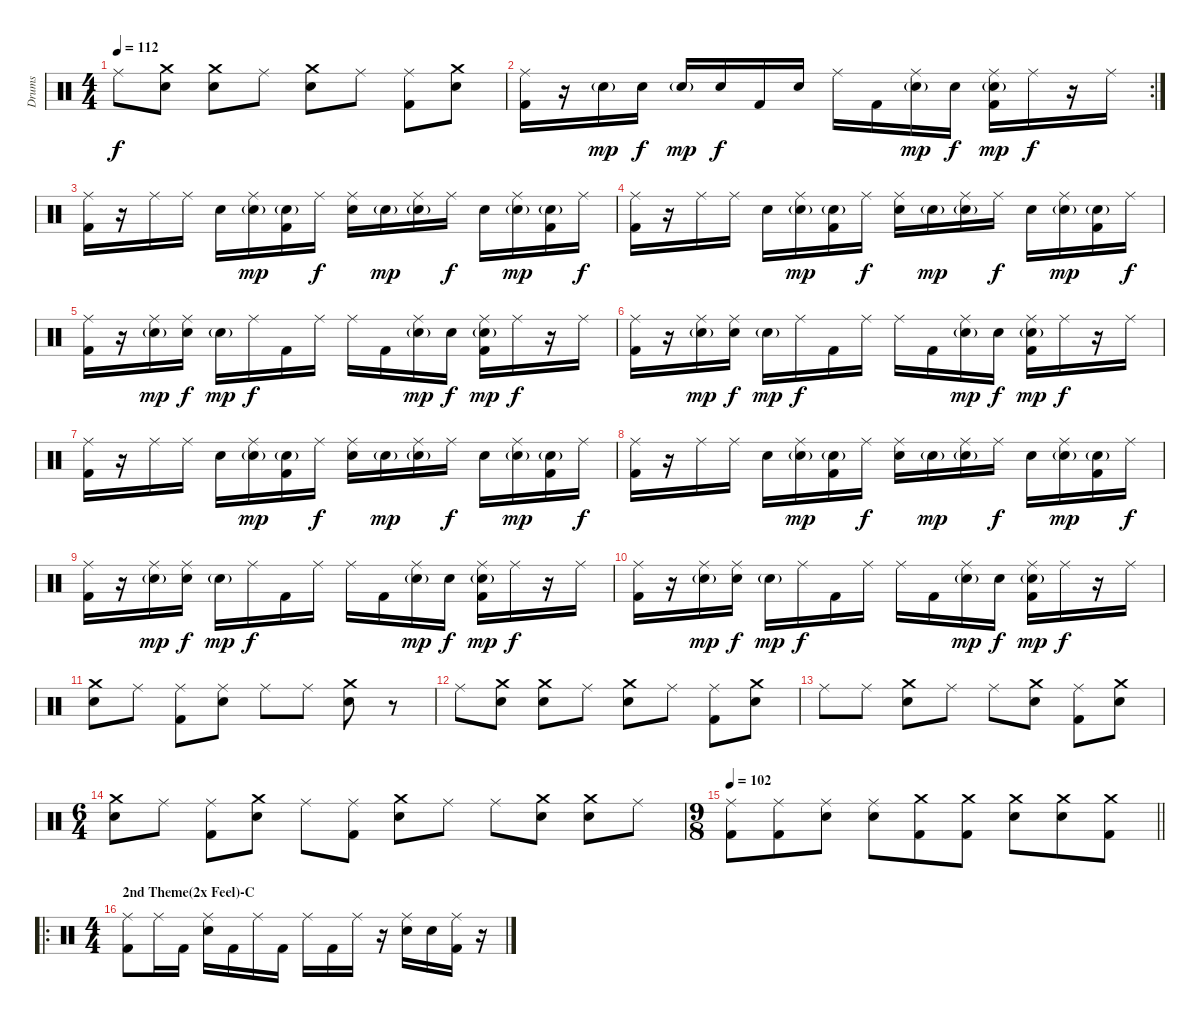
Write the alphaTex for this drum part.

\track ("Drums" "Drums") {instrument percussion}
\staff {score}
\articulation defaults
\ts (4 4)
\tempo 112
\clef neutral
\ks c "Ride (middle)".8{dy f}
("Crash medium (hit)" "Electric Snare (hit)").8 ("Crash medium (hit)" "Electric Snare (hit)").8 "Ride (middle)".8 ("Crash medium (hit)" "Electric Snare (hit)").8 "Ride (middle)".8 ("Ride (middle)" "Kick (hit) 2").8 ("Crash medium (hit)" "Electric Snare (hit)").8 |
\rc 2
("Ride (middle)" "Kick (hit) 2").16 r.16 "Electric Snare (hit)"{g}.16{dy mp} "Electric Snare (hit)".16{dy f} "Electric Snare (hit)"{g}.16{dy mp} "Electric Snare (hit)".16{dy f} "Kick (hit) 2".16 "Electric Snare (hit)".16 "Ride (middle)".16 "Kick (hit) 2".16 ("Ride (middle)" "Electric Snare (hit)"{g}).16{dy mp} "Electric Snare (hit)".16{dy f} ("Ride (middle)" "Electric Snare (hit)"{g} "Kick (hit) 2").16{dy mp} "Ride (middle)".16{dy f} r.16 "Ride (middle)".16 |
("Ride (middle)" "Kick (hit) 2").16 r.16 "Ride (middle)".16 "Ride (middle)".16 "Electric Snare (hit)".16 ("Ride (middle)" "Electric Snare (hit)"{g}).16{dy mp} ("Electric Snare (hit)"{g} "Kick (hit) 2").16 "Ride (middle)".16{dy f} ("Ride (middle)" "Electric Snare (hit)").16 "Electric Snare (hit)"{g}.16{dy mp} ("Ride (middle)" "Electric Snare (hit)"{g}).16 "Ride (middle)".16{dy f} "Electric Snare (hit)".16 ("Ride (middle)" "Electric Snare (hit)"{g}).16{dy mp} ("Electric Snare (hit)"{g} "Kick (hit) 2").16 "Ride (middle)".16{dy f} |
("Ride (middle)" "Kick (hit) 2").16 r.16 "Ride (middle)".16 "Ride (middle)".16 "Electric Snare (hit)".16 ("Ride (middle)" "Electric Snare (hit)"{g}).16{dy mp} ("Electric Snare (hit)"{g} "Kick (hit) 2").16 "Ride (middle)".16{dy f} ("Ride (middle)" "Electric Snare (hit)").16 "Electric Snare (hit)"{g}.16{dy mp} ("Ride (middle)" "Electric Snare (hit)"{g}).16 "Ride (middle)".16{dy f} "Electric Snare (hit)".16 ("Ride (middle)" "Electric Snare (hit)"{g}).16{dy mp} ("Electric Snare (hit)"{g} "Kick (hit) 2").16 "Ride (middle)".16{dy f} |
("Ride (middle)" "Kick (hit) 2").16 r.16 ("Ride (middle)" "Electric Snare (hit)"{g}).16{dy mp} ("Ride (middle)" "Electric Snare (hit)").16{dy f} "Electric Snare (hit)"{g}.16{dy mp} "Ride (middle)".16{dy f} "Kick (hit) 2".16 "Ride (middle)".16 "Ride (middle)".16 "Kick (hit) 2".16 ("Ride (middle)" "Electric Snare (hit)"{g}).16{dy mp} "Electric Snare (hit)".16{dy f} ("Ride (middle)" "Electric Snare (hit)"{g} "Kick (hit) 2").16{dy mp} "Ride (middle)".16{dy f} r.16 "Ride (middle)".16 |
("Ride (middle)" "Kick (hit) 2").16 r.16 ("Ride (middle)" "Electric Snare (hit)"{g}).16{dy mp} ("Ride (middle)" "Electric Snare (hit)").16{dy f} "Electric Snare (hit)"{g}.16{dy mp} "Ride (middle)".16{dy f} "Kick (hit) 2".16 "Ride (middle)".16 "Ride (middle)".16 "Kick (hit) 2".16 ("Ride (middle)" "Electric Snare (hit)"{g}).16{dy mp} "Electric Snare (hit)".16{dy f} ("Ride (middle)" "Electric Snare (hit)"{g} "Kick (hit) 2").16{dy mp} "Ride (middle)".16{dy f} r.16 "Ride (middle)".16 |
("Ride (middle)" "Kick (hit) 2").16 r.16 "Ride (middle)".16 "Ride (middle)".16 "Electric Snare (hit)".16 ("Ride (middle)" "Electric Snare (hit)"{g}).16{dy mp} ("Electric Snare (hit)"{g} "Kick (hit) 2").16 "Ride (middle)".16{dy f} ("Ride (middle)" "Electric Snare (hit)").16 "Electric Snare (hit)"{g}.16{dy mp} ("Ride (middle)" "Electric Snare (hit)"{g}).16 "Ride (middle)".16{dy f} "Electric Snare (hit)".16 ("Ride (middle)" "Electric Snare (hit)"{g}).16{dy mp} ("Electric Snare (hit)"{g} "Kick (hit) 2").16 "Ride (middle)".16{dy f} |
("Ride (middle)" "Kick (hit) 2").16 r.16 "Ride (middle)".16 "Ride (middle)".16 "Electric Snare (hit)".16 ("Ride (middle)" "Electric Snare (hit)"{g}).16{dy mp} ("Electric Snare (hit)"{g} "Kick (hit) 2").16 "Ride (middle)".16{dy f} ("Ride (middle)" "Electric Snare (hit)").16 "Electric Snare (hit)"{g}.16{dy mp} ("Ride (middle)" "Electric Snare (hit)"{g}).16 "Ride (middle)".16{dy f} "Electric Snare (hit)".16 ("Ride (middle)" "Electric Snare (hit)"{g}).16{dy mp} ("Electric Snare (hit)"{g} "Kick (hit) 2").16 "Ride (middle)".16{dy f} |
("Ride (middle)" "Kick (hit) 2").16 r.16 ("Ride (middle)" "Electric Snare (hit)"{g}).16{dy mp} ("Ride (middle)" "Electric Snare (hit)").16{dy f} "Electric Snare (hit)"{g}.16{dy mp} "Ride (middle)".16{dy f} "Kick (hit) 2".16 "Ride (middle)".16 "Ride (middle)".16 "Kick (hit) 2".16 ("Ride (middle)" "Electric Snare (hit)"{g}).16{dy mp} "Electric Snare (hit)".16{dy f} ("Ride (middle)" "Electric Snare (hit)"{g} "Kick (hit) 2").16{dy mp} "Ride (middle)".16{dy f} r.16 "Ride (middle)".16 |
("Ride (middle)" "Kick (hit) 2").16 r.16 ("Ride (middle)" "Electric Snare (hit)"{g}).16{dy mp} ("Ride (middle)" "Electric Snare (hit)").16{dy f} "Electric Snare (hit)"{g}.16{dy mp} "Ride (middle)".16{dy f} "Kick (hit) 2".16 "Ride (middle)".16 "Ride (middle)".16 "Kick (hit) 2".16 ("Ride (middle)" "Electric Snare (hit)"{g}).16{dy mp} "Electric Snare (hit)".16{dy f} ("Ride (middle)" "Electric Snare (hit)"{g} "Kick (hit) 2").16{dy mp} "Ride (middle)".16{dy f} r.16 "Ride (middle)".16 |
("Crash medium (hit)" "Electric Snare (hit)").8 "Ride (middle)".8 ("Ride (middle)" "Kick (hit) 2").8 ("Ride (middle)" "Electric Snare (hit)").8 "Ride (middle)".8 "Ride (middle)".8 ("Crash medium (hit)" "Electric Snare (hit)").8 r.8 |
"Ride (middle)".8 ("Crash medium (hit)" "Electric Snare (hit)").8 ("Crash medium (hit)" "Electric Snare (hit)").8 "Ride (middle)".8 ("Crash medium (hit)" "Electric Snare (hit)").8 "Ride (middle)".8 ("Ride (middle)" "Kick (hit) 2").8 ("Crash medium (hit)" "Electric Snare (hit)").8 |
"Ride (middle)".8 "Ride (middle)".8 ("Crash medium (hit)" "Electric Snare (hit)").8 "Ride (middle)".8 "Ride (middle)".8 ("Crash medium (hit)" "Electric Snare (hit)").8 ("Ride (middle)" "Kick (hit) 2").8 ("Crash medium (hit)" "Electric Snare (hit)").8 |
\ts (6 4)
("Crash medium (hit)" "Electric Snare (hit)").8 "Ride (middle)".8 ("Ride (middle)" "Kick (hit) 2").8 ("Crash medium (hit)" "Electric Snare (hit)").8 "Ride (middle)".8 ("Ride (middle)" "Kick (hit) 2").8 ("Crash medium (hit)" "Electric Snare (hit)").8 "Ride (middle)".8 "Ride (middle)".8 ("Crash medium (hit)" "Electric Snare (hit)").8 ("Crash medium (hit)" "Electric Snare (hit)").8 "Ride (middle)".8 |
\ts (9 8)
\tempo 102
\barLineRight lightlight
("Ride (middle)" "Kick (hit) 2").8 ("Ride (middle)" "Kick (hit) 2").8 ("Ride (middle)" "Electric Snare (hit)").8 ("Ride (middle)" "Electric Snare (hit)").8 ("Crash medium (hit)" "Kick (hit) 2").8 ("Crash medium (hit)" "Kick (hit) 2").8 ("Crash medium (hit)" "Electric Snare (hit)").8 ("Crash medium (hit)" "Electric Snare (hit)").8 ("Crash medium (hit)" "Kick (hit) 2").8 |
\ro
\ts (4 4)
\section ("" "2nd Theme(2x Feel)-C")
("Ride (middle)" "Kick (hit) 2").8 "Ride (middle)".16 "Kick (hit) 2".16 ("Ride (middle)" "Electric Snare (hit)").16 "Kick (hit) 2".16 "Ride (middle)".16 "Kick (hit) 2".16 "Ride (middle)".16 "Kick (hit) 2".16 "Ride (middle)".16 r.16 ("Ride (middle)" "Electric Snare (hit)").16 "Electric Snare (hit)".16 ("Ride (middle)" "Kick (hit) 2").16 r.16
